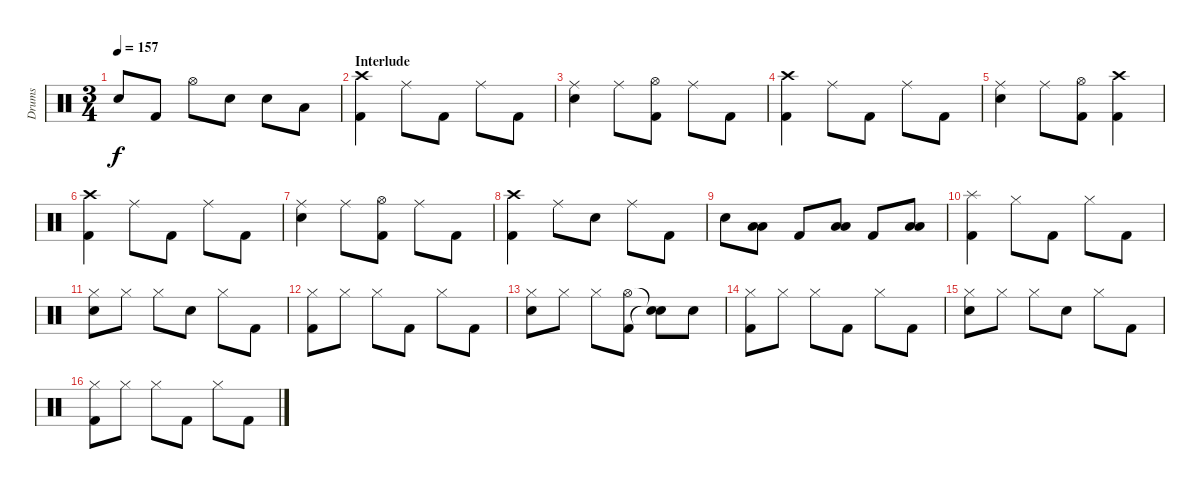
\track ("Drums" "Drums") {instrument percussion}
\staff {score}
\articulation defaults
\ts (3 4)
\tempo 157
\clef neutral
\ks c "Electric Snare (hit)".8{dy f} "Kick (hit) 2".8 "Hi-Hat (open)".8 "Electric Snare (hit)".8 "Electric Snare (hit)".8 "Low Tom (hit)".8
|
\section ("" "Interlude")
("Crash high (hit)" "Kick (hit) 2").4 "Ride (middle)".8 "Kick (hit) 2".8 "Ride (middle)".8 "Kick (hit) 2".8 |
("Ride (middle)" "Electric Snare (hit)").4 "Ride (middle)".8 ("Hi-Hat (open)" "Kick (hit) 2").8 "Ride (middle)".8 "Kick (hit) 2".8 |
("Crash high (hit)" "Kick (hit) 2").4 "Ride (middle)".8 "Kick (hit) 2".8 "Ride (middle)".8 "Kick (hit) 2".8 |
("Ride (middle)" "Electric Snare (hit)").4 "Ride (middle)".8 ("Hi-Hat (open)" "Kick (hit) 2").8 ("Crash high (hit)" "Kick (hit) 2").4 |
("Crash high (hit)" "Kick (hit) 2").4 "Ride (middle)".8 "Kick (hit) 2".8 "Ride (middle)".8 "Kick (hit) 2".8 |
("Ride (middle)" "Electric Snare (hit)").4 "Ride (middle)".8 ("Hi-Hat (open)" "Kick (hit) 2").8 "Ride (middle)".8 "Kick (hit) 2".8 |
("Crash high (hit)" "Kick (hit) 2").4 "Ride (middle)".8 "Electric Snare (hit)".8 "Ride (middle)".8 "Kick (hit) 2".8 |
"Electric Snare (hit)".8 ("Low Floor Tom (hit)" "Low Tom (hit)").8 "Kick (hit) 2".8 ("Low Floor Tom (hit)" "Low Tom (hit)").8 "Kick (hit) 2".8 ("Low Floor Tom (hit)" "Low Tom (hit)").8 |
("Splash (hit)" "Kick (hit) 2").4 "Hi-Hat (closed)".8 "Kick (hit) 2".8 "Hi-Hat (closed)".8 "Kick (hit) 2".8 |
("Hi-Hat (closed)" "Electric Snare (hit)").8 "Hi-Hat (closed)".8 "Hi-Hat (closed)".8 "Electric Snare (hit)".8 "Hi-Hat (closed)".8 "Kick (hit) 2".8 |
("Hi-Hat (closed)" "Kick (hit) 2").8 "Hi-Hat (closed)".8 "Hi-Hat (closed)".8 "Kick (hit) 2".8 "Hi-Hat (closed)".8 "Kick (hit) 2".8 |
("Hi-Hat (closed)" "Electric Snare (hit)").8 "Hi-Hat (closed)".8 "Hi-Hat (closed)".8 ("Hi-Hat (open)" "Kick (hit) 2").8 ("Snare (hit)"{t} "Snare (hit)"{t}).8 "Electric Snare (hit)".8 |
("Hi-Hat (closed)" "Kick (hit) 2").8 "Hi-Hat (closed)".8 "Hi-Hat (closed)".8 "Kick (hit) 2".8 "Hi-Hat (closed)".8 "Kick (hit) 2".8 |
("Hi-Hat (closed)" "Electric Snare (hit)").8 "Hi-Hat (closed)".8 "Hi-Hat (closed)".8 "Electric Snare (hit)".8 "Hi-Hat (closed)".8 "Kick (hit) 2".8 |
("Hi-Hat (closed)" "Kick (hit) 2").8 "Hi-Hat (closed)".8 "Hi-Hat (closed)".8 "Kick (hit) 2".8 "Hi-Hat (closed)".8 "Kick (hit) 2".8
